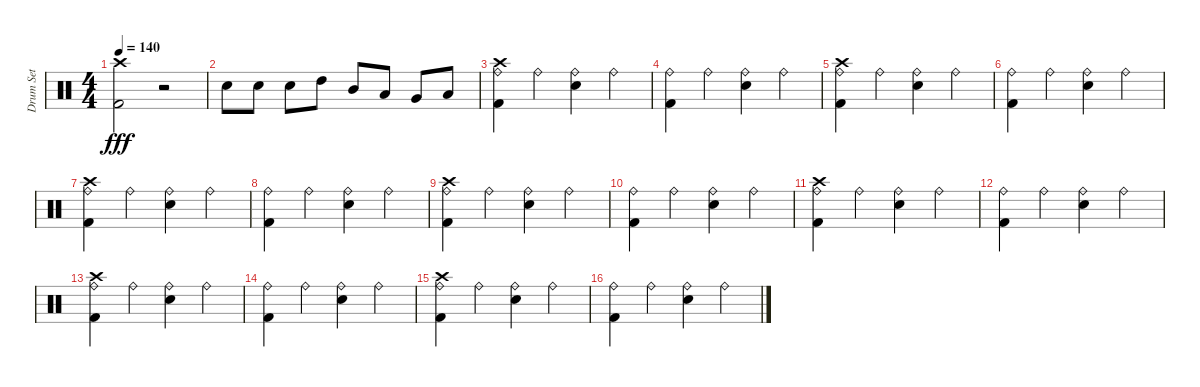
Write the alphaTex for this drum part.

\track ("Drum Set" "Drum Set") {instrument percussion}
\staff {score}
\articulation defaults
\ts (4 4)
\tempo 140
\clef neutral
\ks c
("Kick (hit) 2" "Crash high (hit)").2{dy fff} r.2 |
"Electric Snare (hit)".8 "Electric Snare (hit)".8 "Electric Snare (hit)".8 "High Tom (hit)".8 "Mid Tom (hit)".8 "Low Tom (hit)".8 "Very Low Tom (hit)".8 "Low Floor Tom (hit)".8 |
("Kick (hit) 2" "Crash high (hit)" "Ride (bell)").4 "Ride (bell)".4 ("Electric Snare (hit)" "Ride (bell)").4 "Ride (bell)".4 |
("Kick (hit) 2" "Ride (bell)").4 "Ride (bell)".4 ("Electric Snare (hit)" "Ride (bell)").4 "Ride (bell)".4 |
("Kick (hit) 2" "Crash high (hit)" "Ride (bell)").4 "Ride (bell)".4 ("Electric Snare (hit)" "Ride (bell)").4 "Ride (bell)".4 |
("Kick (hit) 2" "Ride (bell)").4 "Ride (bell)".4 ("Electric Snare (hit)" "Ride (bell)").4 "Ride (bell)".4 |
("Kick (hit) 2" "Ride (bell)" "Crash high (hit)").4 "Ride (bell)".4 ("Electric Snare (hit)" "Ride (bell)").4 "Ride (bell)".4 |
("Kick (hit) 2" "Ride (bell)").4 "Ride (bell)".4 ("Electric Snare (hit)" "Ride (bell)").4 "Ride (bell)".4 |
("Kick (hit) 2" "Crash high (hit)" "Ride (bell)").4 "Ride (bell)".4 ("Electric Snare (hit)" "Ride (bell)").4 "Ride (bell)".4 |
("Kick (hit) 2" "Ride (bell)").4 "Ride (bell)".4 ("Electric Snare (hit)" "Ride (bell)").4 "Ride (bell)".4 |
("Kick (hit) 2" "Ride (bell)" "Crash high (hit)").4 "Ride (bell)".4 ("Electric Snare (hit)" "Ride (bell)").4 "Ride (bell)".4 |
("Kick (hit) 2" "Ride (bell)").4 "Ride (bell)".4 ("Electric Snare (hit)" "Ride (bell)").4 "Ride (bell)".4 |
("Kick (hit) 2" "Ride (bell)" "Crash high (hit)").4 "Ride (bell)".4 ("Electric Snare (hit)" "Ride (bell)").4 "Ride (bell)".4 |
("Kick (hit) 2" "Ride (bell)").4 "Ride (bell)".4 ("Electric Snare (hit)" "Ride (bell)").4 "Ride (bell)".4 |
("Kick (hit) 2" "Ride (bell)" "Crash high (hit)").4 "Ride (bell)".4 ("Electric Snare (hit)" "Ride (bell)").4 "Ride (bell)".4 |
("Kick (hit) 2" "Ride (bell)").4 "Ride (bell)".4 ("Electric Snare (hit)" "Ride (bell)").4 "Ride (bell)".4
